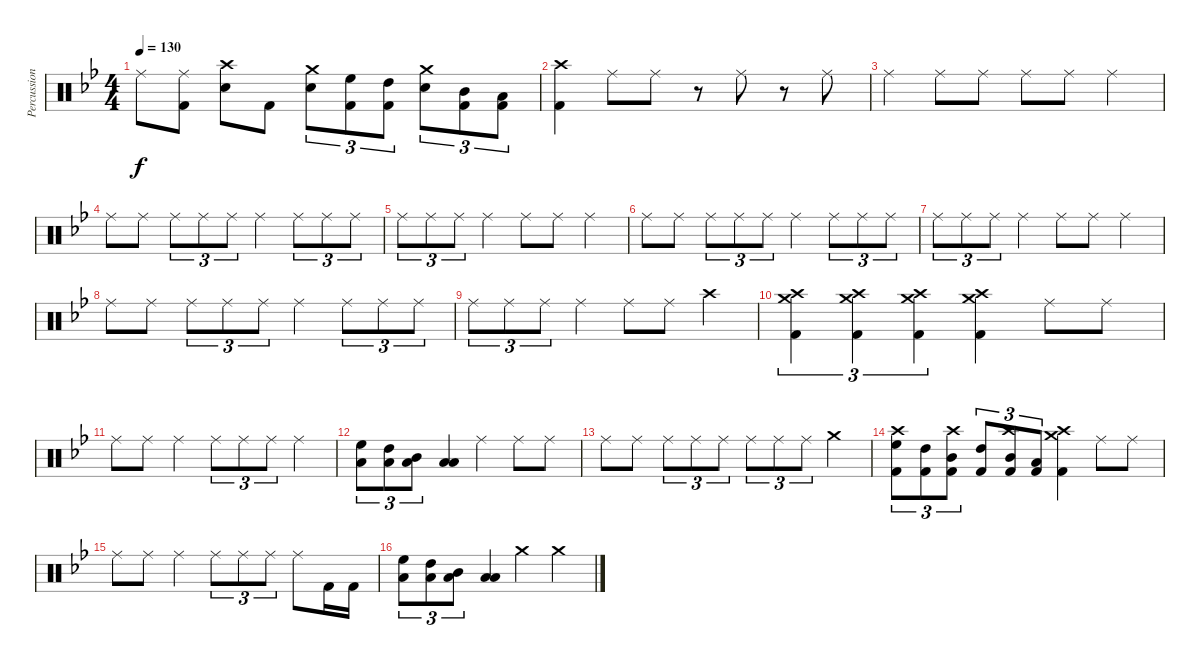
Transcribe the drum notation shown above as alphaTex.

\track ("Percussions" "Percussion") {instrument percussion}
\staff {score}
\articulation defaults
\ts (4 4)
\tempo 130
\clef neutral
\ks gminor "Ride (middle)".8{dy f}
("Ride (middle)" "Kick (hit) 2").8 ("Crash high (hit)" "Electric Snare (hit)").8 "Kick (hit) 2".8 ("Crash medium (hit)" "Electric Snare (hit)").8{tu (3 2)} ("High Floor Tom (hit)" "Kick (hit) 2").8{tu (3 2)} ("High Tom (hit)" "Kick (hit) 2").8{tu (3 2)} ("Crash medium (hit)" "Electric Snare (hit)").8{tu (3 2)} ("Mid Tom (hit)" "Kick (hit) 2").8{tu (3 2)} ("Low Tom (hit)" "Kick (hit) 2").8{tu (3 2)} |
("Crash high (hit)" "Kick (hit) 2").4 "Ride (middle)".8 "Ride (middle)".8 r.8 "Ride (middle)".8 r.8 "Ride (middle)".8 |
"Ride (middle)".4 "Ride (middle)".8 "Ride (middle)".8 "Ride (middle)".8 "Ride (middle)".8 "Ride (middle)".4 |
"Ride (middle)".8 "Ride (middle)".8 "Ride (middle)".8{tu (3 2)} "Ride (middle)".8{tu (3 2)} "Ride (middle)".8{tu (3 2)} "Ride (middle)".4 "Ride (middle)".8{tu (3 2)} "Ride (middle)".8{tu (3 2)} "Ride (middle)".8{tu (3 2)} |
"Ride (middle)".8{tu (3 2)} "Ride (middle)".8{tu (3 2)} "Ride (middle)".8{tu (3 2)} "Ride (middle)".4 "Ride (middle)".8 "Ride (middle)".8 "Ride (middle)".4 |
"Ride (middle)".8 "Ride (middle)".8 "Ride (middle)".8{tu (3 2)} "Ride (middle)".8{tu (3 2)} "Ride (middle)".8{tu (3 2)} "Ride (middle)".4 "Ride (middle)".8{tu (3 2)} "Ride (middle)".8{tu (3 2)} "Ride (middle)".8{tu (3 2)} |
"Ride (middle)".8{tu (3 2)} "Ride (middle)".8{tu (3 2)} "Ride (middle)".8{tu (3 2)} "Ride (middle)".4 "Ride (middle)".8 "Ride (middle)".8 "Ride (middle)".4 |
"Ride (middle)".8 "Ride (middle)".8 "Ride (middle)".8{tu (3 2)} "Ride (middle)".8{tu (3 2)} "Ride (middle)".8{tu (3 2)} "Ride (middle)".4 "Ride (middle)".8{tu (3 2)} "Ride (middle)".8{tu (3 2)} "Ride (middle)".8{tu (3 2)} |
"Ride (middle)".8{tu (3 2)} "Ride (middle)".8{tu (3 2)} "Ride (middle)".8{tu (3 2)} "Ride (middle)".4 "Ride (middle)".8 "Ride (middle)".8 "Crash high (hit)".4 |
("Crash medium (hit)" "Crash high (hit)" "Kick (hit) 2").4{tu (3 2)} ("Crash medium (hit)" "Crash high (hit)" "Kick (hit) 2").4{tu (3 2)} ("Crash medium (hit)" "Crash high (hit)" "Kick (hit) 2").4{tu (3 2)} ("Crash medium (hit)" "Crash high (hit)" "Kick (hit) 2").4 "Ride (middle)".8 "Ride (middle)".8 |
"Ride (middle)".8 "Ride (middle)".8 "Ride (middle)".4 "Ride (middle)".8{tu (3 2)} "Ride (middle)".8{tu (3 2)} "Ride (middle)".8{tu (3 2)} "Ride (middle)".4 |
("High Floor Tom (hit)" "Low Tom (hit)").8{tu (3 2)} ("High Tom (hit)" "Low Tom (hit)").8{tu (3 2)} ("Mid Tom (hit)" "Low Tom (hit)").8{tu (3 2)} ("Low Tom (hit)" "Low Tom (hit)").4 "Ride (middle)".4 "Ride (middle)".8 "Ride (middle)".8 |
"Ride (middle)".8 "Ride (middle)".8 "Ride (middle)".8{tu (3 2)} "Ride (middle)".8{tu (3 2)} "Ride (middle)".8{tu (3 2)} "Ride (middle)".8{tu (3 2)} "Ride (middle)".8{tu (3 2)} "Ride (middle)".8{tu (3 2)} "Crash medium (hit)".4 |
("Crash high (hit)" "High Floor Tom (hit)" "Kick (hit) 2").8{tu (3 2)} ("High Tom (hit)" "Kick (hit) 2").8{tu (3 2)} ("Crash high (hit)" "Mid Tom (hit)" "Kick (hit) 2").8{tu (3 2)} ("High Tom (hit)" "Kick (hit) 2").8{tu (3 2)} ("Crash high (hit)" "Mid Tom (hit)" "Kick (hit) 2").8{tu (3 2)} ("Low Tom (hit)" "Kick (hit) 2").8{tu (3 2)} ("Crash medium (hit)" "Crash high (hit)" "Kick (hit) 2").4 "Ride (middle)".8 "Ride (middle)".8 |
"Ride (middle)".8 "Ride (middle)".8 "Ride (middle)".4 "Ride (middle)".8{tu (3 2)} "Ride (middle)".8{tu (3 2)} "Ride (middle)".8{tu (3 2)} "Ride (middle)".8 "Kick (hit) 2".16 "Kick (hit) 2".16 |
("High Floor Tom (hit)" "Low Tom (hit)").8{tu (3 2)} ("High Tom (hit)" "Low Tom (hit)").8{tu (3 2)} ("Mid Tom (hit)" "Low Tom (hit)").8{tu (3 2)} ("Low Tom (hit)" "Low Tom (hit)").4 "Crash medium (hit)".4 "Crash medium (hit)".4
